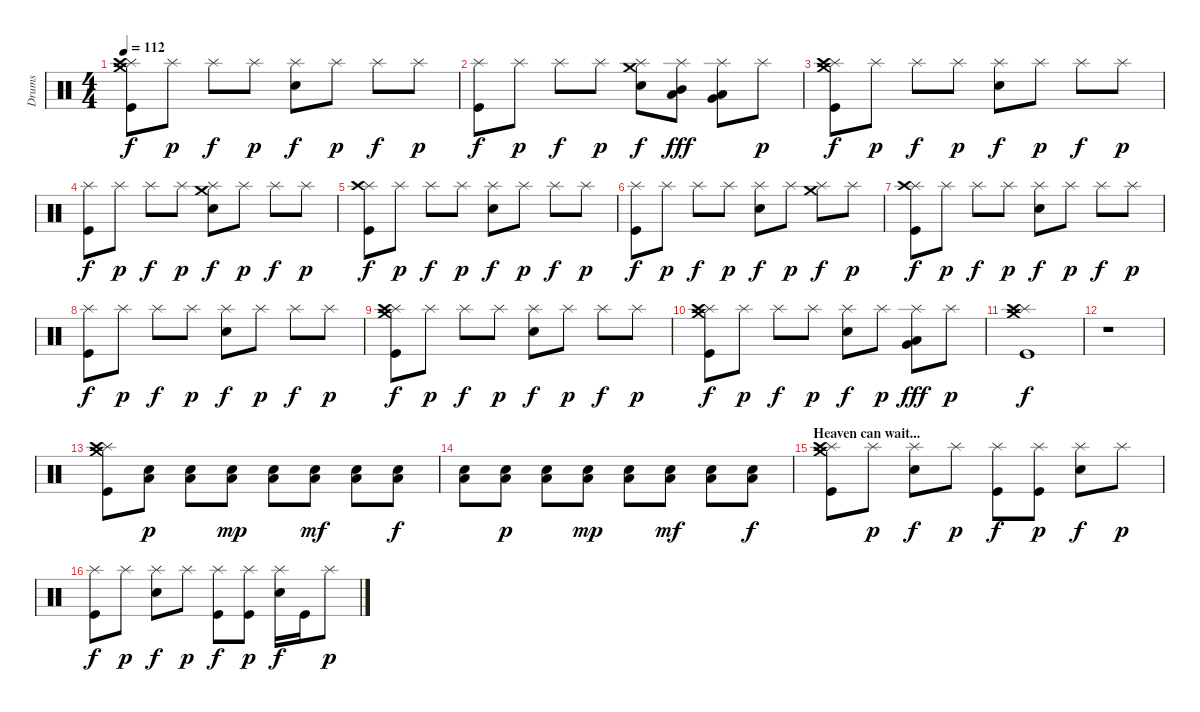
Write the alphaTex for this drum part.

\track ("Drums" "Drums") {instrument percussion}
\staff {score}
\articulation defaults
\ts (4 4)
\tempo 112
\clef neutral
\ks c
("Crash medium (hit)" "Splash (hit)" "Crash high (hit)" "Kick (hit)").8{dy f} "Splash (hit)".8{dy p} "Splash (hit)".8{dy f} "Splash (hit)".8{dy p} ("Splash (hit)" "Electric Snare (hit)").8{dy f} "Splash (hit)".8{dy p} "Splash (hit)".8{dy f} "Splash (hit)".8{dy p} |
("Splash (hit)" "Kick (hit)").8{dy f} "Splash (hit)".8{dy p} "Splash (hit)".8{dy f} "Splash (hit)".8{dy p} ("Crash medium (hit)" "Splash (hit)" "Electric Snare (hit)").8{dy f} ("Splash (hit)" "Low Floor Tom (hit)" "Mid Tom (hit)").8{dy fff} ("Splash (hit)" "Low Floor Tom (hit)" "Very Low Tom (hit)").8 "Splash (hit)".8{dy p} |
("Crash medium (hit)" "Splash (hit)" "Crash high (hit)" "Kick (hit)").8{dy f} "Splash (hit)".8{dy p} "Splash (hit)".8{dy f} "Splash (hit)".8{dy p} ("Splash (hit)" "Electric Snare (hit)").8{dy f} "Splash (hit)".8{dy p} "Splash (hit)".8{dy f} "Splash (hit)".8{dy p} |
("Splash (hit)" "Kick (hit)").8{dy f} "Splash (hit)".8{dy p} "Splash (hit)".8{dy f} "Splash (hit)".8{dy p} ("Crash medium (hit)" "Splash (hit)" "Electric Snare (hit)").8{dy f} "Splash (hit)".8{dy p} "Splash (hit)".8{dy f} "Splash (hit)".8{dy p} |
("Splash (hit)" "Crash high (hit)" "Kick (hit)").8{dy f} "Splash (hit)".8{dy p} "Splash (hit)".8{dy f} "Splash (hit)".8{dy p} ("Splash (hit)" "Electric Snare (hit)").8{dy f} "Splash (hit)".8{dy p} "Splash (hit)".8{dy f} "Splash (hit)".8{dy p} |
("Splash (hit)" "Kick (hit)").8{dy f} "Splash (hit)".8{dy p} "Splash (hit)".8{dy f} "Splash (hit)".8{dy p} ("Splash (hit)" "Electric Snare (hit)").8{dy f} "Splash (hit)".8{dy p} ("Crash medium (hit)" "Splash (hit)").8{dy f} "Splash (hit)".8{dy p} |
("Splash (hit)" "Crash high (hit)" "Kick (hit)").8{dy f} "Splash (hit)".8{dy p} "Splash (hit)".8{dy f} "Splash (hit)".8{dy p} ("Splash (hit)" "Electric Snare (hit)").8{dy f} "Splash (hit)".8{dy p} "Splash (hit)".8{dy f} "Splash (hit)".8{dy p} |
("Splash (hit)" "Kick (hit)").8{dy f} "Splash (hit)".8{dy p} "Splash (hit)".8{dy f} "Splash (hit)".8{dy p} ("Splash (hit)" "Electric Snare (hit)").8{dy f} "Splash (hit)".8{dy p} "Splash (hit)".8{dy f} "Splash (hit)".8{dy p} |
("Crash medium (hit)" "Splash (hit)" "Crash high (hit)" "Kick (hit)").8{dy f} "Splash (hit)".8{dy p} "Splash (hit)".8{dy f} "Splash (hit)".8{dy p} ("Splash (hit)" "Electric Snare (hit)").8{dy f} "Splash (hit)".8{dy p} "Splash (hit)".8{dy f} "Splash (hit)".8{dy p} |
("Crash medium (hit)" "Splash (hit)" "Crash high (hit)" "Kick (hit)").8{dy f} "Splash (hit)".8{dy p} "Splash (hit)".8{dy f} "Splash (hit)".8{dy p} ("Splash (hit)" "Electric Snare (hit)").8{dy f} "Splash (hit)".8{dy p} ("Splash (hit)" "Low Floor Tom (hit)" "Very Low Tom (hit)").8{dy fff} "Splash (hit)".8{dy p} |
("Crash medium (hit)" "Splash (hit)" "Crash high (hit)" "Kick (hit)").1{dy f} |
r.1 |
("Crash medium (hit)" "Splash (hit)" "Crash high (hit)" "Kick (hit)").8 ("Low Floor Tom (hit)" "Electric Snare (hit)").8{dy p} ("Low Floor Tom (hit)" "Electric Snare (hit)").8 ("Low Floor Tom (hit)" "Electric Snare (hit)").8{dy mp} ("Low Floor Tom (hit)" "Electric Snare (hit)").8 ("Low Floor Tom (hit)" "Electric Snare (hit)").8{dy mf} ("Low Floor Tom (hit)" "Electric Snare (hit)").8 ("Low Floor Tom (hit)" "Electric Snare (hit)").8{dy f} |
("Low Floor Tom (hit)" "Electric Snare (hit)").8 ("Low Floor Tom (hit)" "Electric Snare (hit)").8{dy p} ("Low Floor Tom (hit)" "Electric Snare (hit)").8 ("Low Floor Tom (hit)" "Electric Snare (hit)").8{dy mp} ("Low Floor Tom (hit)" "Electric Snare (hit)").8 ("Low Floor Tom (hit)" "Electric Snare (hit)").8{dy mf} ("Low Floor Tom (hit)" "Electric Snare (hit)").8 ("Low Floor Tom (hit)" "Electric Snare (hit)").8{dy f} |
\section ("" "Heaven can wait...")
("Crash medium (hit)" "Splash (hit)" "Crash high (hit)" "Kick (hit)").8 "Splash (hit)".8{dy p} ("Splash (hit)" "Electric Snare (hit)").8{dy f} "Splash (hit)".8{dy p} ("Splash (hit)" "Kick (hit)").8{dy f} ("Splash (hit)" "Kick (hit)").8{dy p} ("Splash (hit)" "Electric Snare (hit)").8{dy f} "Splash (hit)".8{dy p} |
("Splash (hit)" "Kick (hit)").8{dy f} "Splash (hit)".8{dy p} ("Splash (hit)" "Electric Snare (hit)").8{dy f} "Splash (hit)".8{dy p} ("Splash (hit)" "Kick (hit)").8{dy f} ("Splash (hit)" "Kick (hit)").8{dy p} ("Splash (hit)" "Electric Snare (hit)").16{dy f} "Kick (hit)".16 "Splash (hit)".8{dy p}
